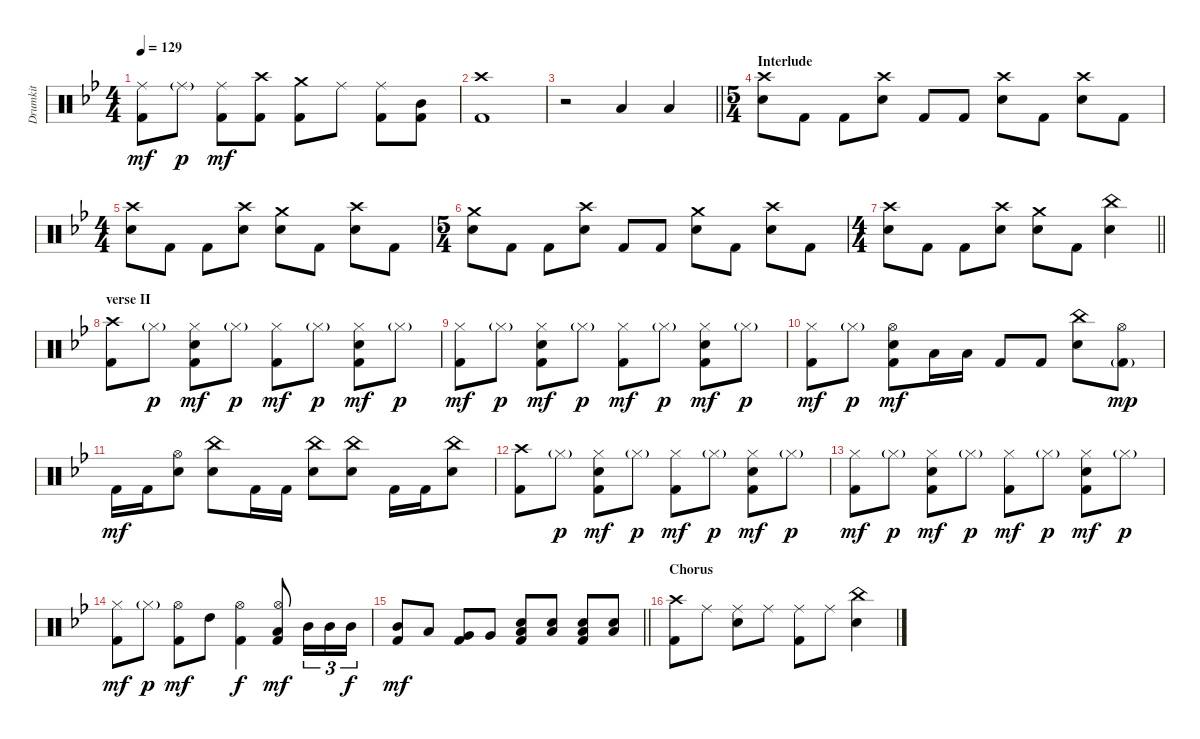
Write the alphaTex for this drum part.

\track ("Drumkit" "Drumkit") {instrument percussion}
\staff {score}
\articulation defaults
\ts (4 4)
\tempo 129
\clef neutral
\ks bb
("Ride (middle)" "Kick (hit) 2").8{dy mf} "Ride (middle)"{g}.8{dy p} ("Ride (middle)" "Kick (hit) 2").8{dy mf} ("Kick (hit) 2" "Crash high (hit)").8 ("Kick (hit) 2" "Crash medium (hit)").8 "Ride (middle)".8 ("Kick (hit) 2" "Ride (middle)").8 ("Kick (hit) 2" "Mid Tom (hit)").8 |
("Kick (hit) 2" "Crash high (hit)").1 |
\barLineRight lightlight
r.2 "Low Floor Tom (hit)".4 "Low Floor Tom (hit)".4 |
\ts (5 4)
\section ("" "Interlude")
("Crash high (hit)" "Snare (hit) 2").8 "Kick (hit) 2".8 "Kick (hit) 2".8 ("Crash high (hit)" "Snare (hit) 2").8 "Kick (hit) 2".8 "Kick (hit) 2".8 ("Crash high (hit)" "Snare (hit) 2").8 "Kick (hit) 2".8 ("Crash high (hit)" "Snare (hit) 2").8 "Kick (hit) 2".8 |
\ts (4 4)
("Crash high (hit)" "Snare (hit) 2").8 "Kick (hit) 2".8 "Kick (hit) 2".8 ("Crash high (hit)" "Snare (hit) 2").8 ("Crash medium (hit)" "Snare (hit) 2").8 "Kick (hit) 2".8 ("Crash high (hit)" "Snare (hit) 2").8 "Kick (hit) 2".8 |
\ts (5 4)
("Crash medium (hit)" "Snare (hit) 2").8 "Kick (hit) 2".8 "Kick (hit) 2".8 ("Crash high (hit)" "Snare (hit) 2").8 "Kick (hit) 2".8 "Kick (hit) 2".8 ("Crash medium (hit)" "Snare (hit) 2").8 "Kick (hit) 2".8 ("Crash high (hit)" "Snare (hit) 2").8 "Kick (hit) 2".8 |
\ts (4 4)
\barLineRight lightlight
("Crash high (hit)" "Snare (hit) 2").8 "Kick (hit) 2".8 "Kick (hit) 2".8 ("Crash high (hit)" "Snare (hit) 2").8 ("Crash medium (hit)" "Snare (hit) 2").8 "Kick (hit) 2".8 ("Snare (hit) 2" "China (hit)").4 |
\section ("" "verse II")
("Crash high (hit)" "Kick (hit) 2").8 "Hi-Hat (closed)"{g}.8{dy p} ("Kick (hit) 2" "Snare (hit) 2" "Hi-Hat (closed)").8{dy mf} "Hi-Hat (closed)"{g}.8{dy p} ("Hi-Hat (closed)" "Kick (hit) 2").8{dy mf} "Hi-Hat (closed)"{g}.8{dy p} ("Kick (hit) 2" "Hi-Hat (closed)" "Snare (hit) 2").8{dy mf} "Hi-Hat (closed)"{g}.8{dy p} |
("Hi-Hat (closed)" "Kick (hit) 2").8{dy mf} "Hi-Hat (closed)"{g}.8{dy p} ("Kick (hit) 2" "Snare (hit) 2" "Hi-Hat (closed)").8{dy mf} "Hi-Hat (closed)"{g}.8{dy p} ("Hi-Hat (closed)" "Kick (hit) 2").8{dy mf} "Hi-Hat (closed)"{g}.8{dy p} ("Kick (hit) 2" "Hi-Hat (closed)" "Snare (hit) 2").8{dy mf} "Hi-Hat (closed)"{g}.8{dy p} |
("Hi-Hat (closed)" "Kick (hit) 2").8{dy mf} "Hi-Hat (closed)"{g}.8{dy p} ("Hi-Hat (open)" "Snare (hit) 2" "Kick (hit) 2").8{dy mf} "Low Tom (hit)".16 "Low Tom (hit)".16 "Kick (hit) 2".8 "Kick (hit) 2".8 ("China (hit)" "Snare (hit) 2").8 ("Hi-Hat (open)" "Kick (hit) 2"{g}).8{dy mp} |
"Kick (hit) 2".16{dy mf} "Kick (hit) 2".16 ("Hi-Hat (open)" "Snare (hit) 2").8 ("China (hit)" "Snare (hit) 2").8 "Kick (hit) 2".16 "Kick (hit) 2".16 ("China (hit)" "Snare (hit) 2").8 ("China (hit)" "Snare (hit) 2").8 "Kick (hit) 2".16 "Kick (hit) 2".16 ("China (hit)" "Snare (hit) 2").8 |
("Crash high (hit)" "Kick (hit) 2").8 "Hi-Hat (closed)"{g}.8{dy p} ("Kick (hit) 2" "Snare (hit) 2" "Hi-Hat (closed)").8{dy mf} "Hi-Hat (closed)"{g}.8{dy p} ("Hi-Hat (closed)" "Kick (hit) 2").8{dy mf} "Hi-Hat (closed)"{g}.8{dy p} ("Kick (hit) 2" "Hi-Hat (closed)" "Snare (hit) 2").8{dy mf} "Hi-Hat (closed)"{g}.8{dy p} |
("Hi-Hat (closed)" "Kick (hit) 2").8{dy mf} "Hi-Hat (closed)"{g}.8{dy p} ("Kick (hit) 2" "Snare (hit) 2" "Hi-Hat (closed)").8{dy mf} "Hi-Hat (closed)"{g}.8{dy p} ("Hi-Hat (closed)" "Kick (hit) 2").8{dy mf} "Hi-Hat (closed)"{g}.8{dy p} ("Kick (hit) 2" "Hi-Hat (closed)" "Snare (hit) 2").8{dy mf} "Hi-Hat (closed)"{g}.8{dy p} |
("Hi-Hat (closed)" "Kick (hit) 2").8{dy mf} "Hi-Hat (closed)"{g}.8{dy p} ("Hi-Hat (open)" "Kick (hit) 2").8{dy mf} "High Tom (hit)".8 ("Kick (hit) 2" "Hi-Hat (open)").4{dy f} ("Hi-Hat (open)" "Kick (hit) 2" "Low Tom (hit)").8{dy mf} "Mid Tom (hit)".16{tu (3 2)} "Mid Tom (hit)".16{tu (3 2)} "Mid Tom (hit)".16{tu (3 2) dy f} |
\barLineRight lightlight
("Mid Tom (hit)" "Kick (hit) 2").8{dy mf} "Low Tom (hit)".8 ("Kick (hit) 2" "Very Low Tom (hit)").8 "Very Low Tom (hit)".8 ("Low Floor Tom (hit)" "Kick (hit) 2" "Snare (hit) 2").8 ("Low Floor Tom (hit)" "Snare (hit) 2").8 ("Low Floor Tom (hit)" "Kick (hit) 2" "Snare (hit) 2").8 ("Low Floor Tom (hit)" "Snare (hit) 2").8 |
\section ("" "Chorus")
("Crash high (hit)" "Kick (hit) 2").8 "Ride (middle)".8 ("Ride (middle)" "Snare (hit) 2").8 "Ride (middle)".8 ("Ride (middle)" "Kick (hit) 2").8 "Ride (middle)".8 ("Snare (hit) 2" "China (hit)").4
